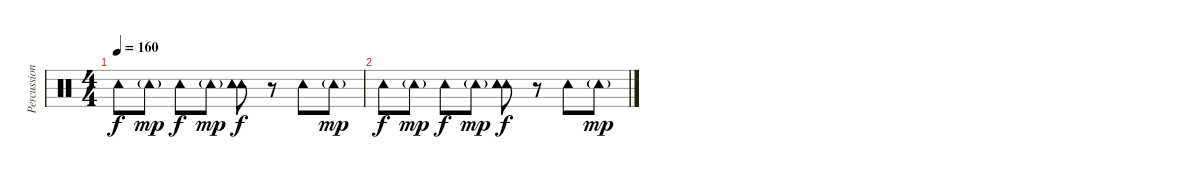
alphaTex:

\track ("Percussion" "Percussion") {instrument percussion}
\staff {score}
\articulation defaults
\ts (4 4)
\tempo 160
\clef neutral
\ks c "Tambourine (hit)".8{dy f} "Tambourine (hit)"{g}.8{dy mp} "Tambourine (hit)".8{dy f} "Tambourine (hit)"{g}.8{dy mp}
("Tambourine (hit)" "Tambourine (hit)" "Tambourine (hit)").8{dy f} r.8 "Tambourine (hit)".8 "Tambourine (hit)"{g}.8{dy mp} |
"Tambourine (hit)".8{dy f} "Tambourine (hit)"{g}.8{dy mp} "Tambourine (hit)".8{dy f} "Tambourine (hit)"{g}.8{dy mp} ("Tambourine (hit)" "Tambourine (hit)" "Tambourine (hit)").8{dy f} r.8 "Tambourine (hit)".8 "Tambourine (hit)"{g}.8{dy mp}
